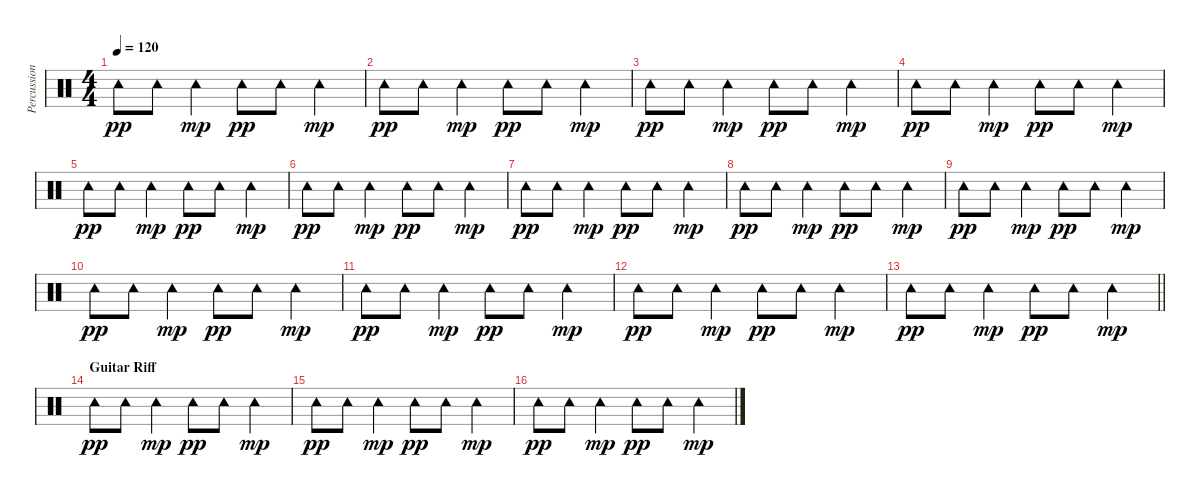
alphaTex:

\track ("Percussion" "Percussion") {instrument percussion}
\staff {score}
\articulation defaults
\ts (4 4)
\tempo 120
\clef neutral
\ks c "Tambourine (hit)".8{dy pp} "Tambourine (hit)".8 "Tambourine (hit)".4{dy mp} "Tambourine (hit)".8{dy pp} "Tambourine (hit)".8 "Tambourine (hit)".4{dy mp}
|
"Tambourine (hit)".8{dy pp} "Tambourine (hit)".8 "Tambourine (hit)".4{dy mp} "Tambourine (hit)".8{dy pp} "Tambourine (hit)".8 "Tambourine (hit)".4{dy mp} |
"Tambourine (hit)".8{dy pp} "Tambourine (hit)".8 "Tambourine (hit)".4{dy mp} "Tambourine (hit)".8{dy pp} "Tambourine (hit)".8 "Tambourine (hit)".4{dy mp} |
"Tambourine (hit)".8{dy pp} "Tambourine (hit)".8 "Tambourine (hit)".4{dy mp} "Tambourine (hit)".8{dy pp} "Tambourine (hit)".8 "Tambourine (hit)".4{dy mp} |
"Tambourine (hit)".8{dy pp} "Tambourine (hit)".8 "Tambourine (hit)".4{dy mp} "Tambourine (hit)".8{dy pp} "Tambourine (hit)".8 "Tambourine (hit)".4{dy mp} |
"Tambourine (hit)".8{dy pp} "Tambourine (hit)".8 "Tambourine (hit)".4{dy mp} "Tambourine (hit)".8{dy pp} "Tambourine (hit)".8 "Tambourine (hit)".4{dy mp} |
"Tambourine (hit)".8{dy pp} "Tambourine (hit)".8 "Tambourine (hit)".4{dy mp} "Tambourine (hit)".8{dy pp} "Tambourine (hit)".8 "Tambourine (hit)".4{dy mp} |
"Tambourine (hit)".8{dy pp} "Tambourine (hit)".8 "Tambourine (hit)".4{dy mp} "Tambourine (hit)".8{dy pp} "Tambourine (hit)".8 "Tambourine (hit)".4{dy mp} |
"Tambourine (hit)".8{dy pp} "Tambourine (hit)".8 "Tambourine (hit)".4{dy mp} "Tambourine (hit)".8{dy pp} "Tambourine (hit)".8 "Tambourine (hit)".4{dy mp} |
"Tambourine (hit)".8{dy pp} "Tambourine (hit)".8 "Tambourine (hit)".4{dy mp} "Tambourine (hit)".8{dy pp} "Tambourine (hit)".8 "Tambourine (hit)".4{dy mp} |
"Tambourine (hit)".8{dy pp} "Tambourine (hit)".8 "Tambourine (hit)".4{dy mp} "Tambourine (hit)".8{dy pp} "Tambourine (hit)".8 "Tambourine (hit)".4{dy mp} |
"Tambourine (hit)".8{dy pp} "Tambourine (hit)".8 "Tambourine (hit)".4{dy mp} "Tambourine (hit)".8{dy pp} "Tambourine (hit)".8 "Tambourine (hit)".4{dy mp} |
\barLineRight lightlight "Tambourine (hit)".8{dy pp} "Tambourine (hit)".8 "Tambourine (hit)".4{dy mp} "Tambourine (hit)".8{dy pp} "Tambourine (hit)".8 "Tambourine (hit)".4{dy mp}
|
\section ("" "Guitar Riff")
"Tambourine (hit)".8{dy pp} "Tambourine (hit)".8 "Tambourine (hit)".4{dy mp} "Tambourine (hit)".8{dy pp} "Tambourine (hit)".8 "Tambourine (hit)".4{dy mp} |
"Tambourine (hit)".8{dy pp} "Tambourine (hit)".8 "Tambourine (hit)".4{dy mp} "Tambourine (hit)".8{dy pp} "Tambourine (hit)".8 "Tambourine (hit)".4{dy mp} |
"Tambourine (hit)".8{dy pp} "Tambourine (hit)".8 "Tambourine (hit)".4{dy mp} "Tambourine (hit)".8{dy pp} "Tambourine (hit)".8 "Tambourine (hit)".4{dy mp}
